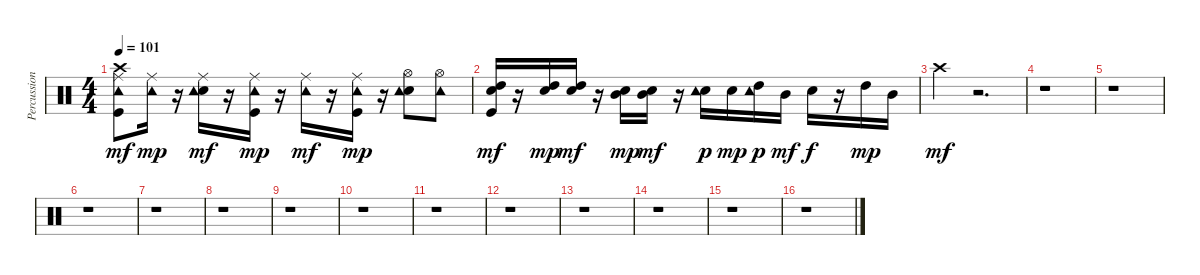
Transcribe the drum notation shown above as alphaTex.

\track ("Percussion" "Percussion") {instrument percussion}
\staff {score}
\articulation defaults
\ts (4 4)
\tempo 101
\clef neutral
\ks c
("Crash high (hit)" "Kick (hit)" "Tambourine (hit)" "Ride (middle)").8{dy mf} ("Tambourine (hit)" "Ride (middle)").16{dy mp} r.16 ("Electric Snare (hit)" "Tambourine (hit)" "Ride (middle)").16{dy mf} r.16 ("Kick (hit)" "Tambourine (hit)" "Ride (middle)").16{dy mp} r.16 ("Tambourine (hit)" "Ride (middle)").16{dy mf} r.16 ("Kick (hit)" "Tambourine (hit)" "Ride (middle)").16{dy mp} r.16 ("Electric Snare (hit)" "Tambourine (hit)" "Hi-Hat (open)").8 ("Tambourine (hit)" "Hi-Hat (open)").8 |
("Electric Snare (hit)" "Kick (hit)" "High Tom (hit)").16{dy mf} r.16 ("Electric Snare (hit)" "High Tom (hit)").16{dy mp} ("Electric Snare (hit)" "High Tom (hit)").16{dy mf} r.16 ("Electric Snare (hit)" "Mid Tom (hit)").16{dy mp} ("Electric Snare (hit)" "Mid Tom (hit)").16{dy mf} r.16 ("Electric Snare (hit)" "Tambourine (hit)").16{dy p} "Electric Snare (hit)".16{dy mp} ("High Tom (hit)" "Tambourine (hit)").16{dy p} "Mid Tom (hit)".16{dy mf} "Electric Snare (hit)".16{dy f} r.16 "High Tom (hit)".16{dy mp} "Mid Tom (hit)".16 |
"Crash high (hit)".4{dy mf} r.2{d} |
r.1 |
r.1 |
r.1 |
r.1 |
r.1 |
r.1 |
r.1 |
r.1 |
r.1 |
r.1 |
r.1 |
r.1 |
r.1
